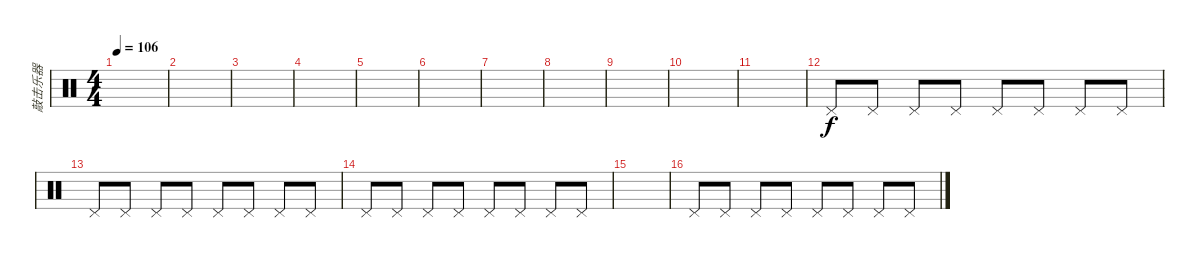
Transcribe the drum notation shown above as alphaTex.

\track ("敲击乐器" "敲击乐器") {instrument percussion}
\staff {score}
\articulation defaults
\ts (4 4)
\tempo 106
\clef neutral
\ks c
|
|
|
|
|
|
|
|
|
|
|
"Pedal Hi-Hat (hit)".8 "Pedal Hi-Hat (hit)".8 "Pedal Hi-Hat (hit)".8 "Pedal Hi-Hat (hit)".8 "Pedal Hi-Hat (hit)".8 "Pedal Hi-Hat (hit)".8 "Pedal Hi-Hat (hit)".8 "Pedal Hi-Hat (hit)".8 |
"Pedal Hi-Hat (hit)".8 "Pedal Hi-Hat (hit)".8 "Pedal Hi-Hat (hit)".8 "Pedal Hi-Hat (hit)".8 "Pedal Hi-Hat (hit)".8 "Pedal Hi-Hat (hit)".8 "Pedal Hi-Hat (hit)".8 "Pedal Hi-Hat (hit)".8 |
"Pedal Hi-Hat (hit)".8 "Pedal Hi-Hat (hit)".8 "Pedal Hi-Hat (hit)".8 "Pedal Hi-Hat (hit)".8 "Pedal Hi-Hat (hit)".8 "Pedal Hi-Hat (hit)".8 "Pedal Hi-Hat (hit)".8 "Pedal Hi-Hat (hit)".8 |
|
"Pedal Hi-Hat (hit)".8 "Pedal Hi-Hat (hit)".8 "Pedal Hi-Hat (hit)".8 "Pedal Hi-Hat (hit)".8 "Pedal Hi-Hat (hit)".8 "Pedal Hi-Hat (hit)".8 "Pedal Hi-Hat (hit)".8 "Pedal Hi-Hat (hit)".8
